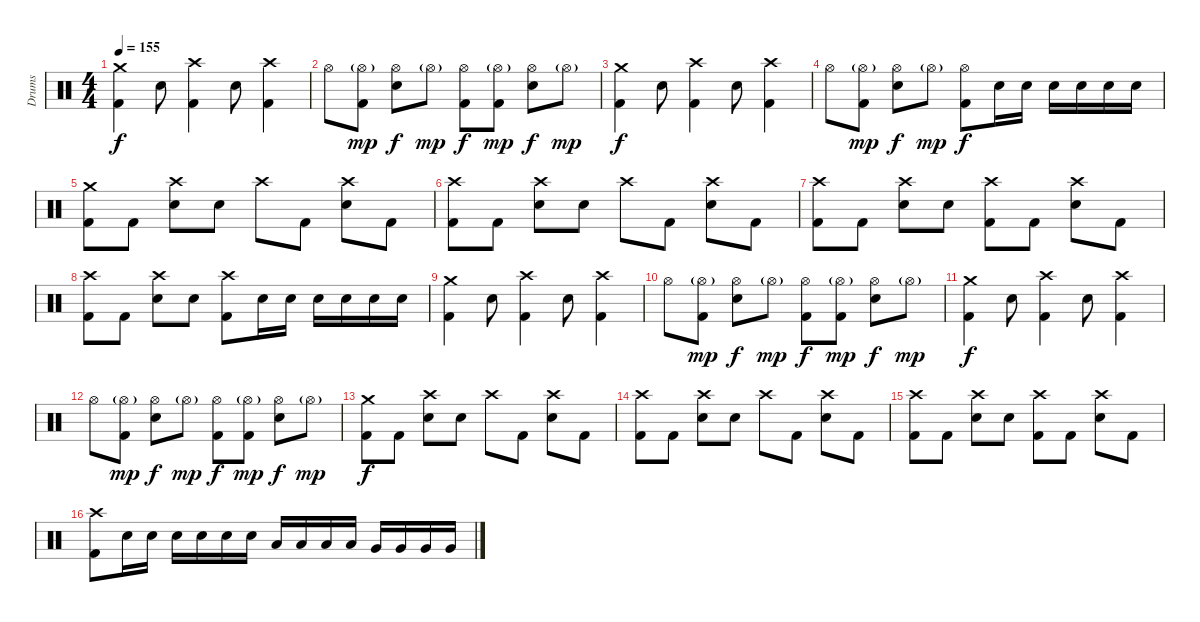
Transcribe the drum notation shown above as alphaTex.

\track ("Drums" "Drums") {instrument percussion}
\staff {score}
\articulation defaults
\ts (4 4)
\tempo 155
\clef neutral
\ks c
("Crash medium (hit)" "Kick (hit) 2").4{dy f} "Electric Snare (hit)".8 ("Crash high (hit)" "Kick (hit) 2").4 "Electric Snare (hit)".8 ("Crash high (hit)" "Kick (hit) 2").4 |
"Hi-Hat (open)".8 ("Hi-Hat (open)"{g} "Kick (hit) 2").8{dy mp} ("Hi-Hat (open)" "Electric Snare (hit)").8{dy f} "Hi-Hat (open)"{g}.8{dy mp} ("Hi-Hat (open)" "Kick (hit) 2").8{dy f} ("Hi-Hat (open)"{g} "Kick (hit) 2").8{dy mp} ("Hi-Hat (open)" "Electric Snare (hit)").8{dy f} "Hi-Hat (open)"{g}.8{dy mp} |
("Crash medium (hit)" "Kick (hit) 2").4{dy f} "Electric Snare (hit)".8 ("Crash high (hit)" "Kick (hit) 2").4 "Electric Snare (hit)".8 ("Crash high (hit)" "Kick (hit) 2").4 |
"Hi-Hat (open)".8 ("Hi-Hat (open)"{g} "Kick (hit) 2").8{dy mp} ("Hi-Hat (open)" "Electric Snare (hit)").8{dy f} "Hi-Hat (open)"{g}.8{dy mp} ("Hi-Hat (open)" "Kick (hit) 2").8{dy f} "Electric Snare (hit)".16 "Electric Snare (hit)".16 "Electric Snare (hit)".16 "Electric Snare (hit)".16 "Electric Snare (hit)".16 "Electric Snare (hit)".16 |
("Crash medium (hit)" "Kick (hit) 2").8 "Kick (hit) 2".8 ("Crash high (hit)" "Electric Snare (hit)").8 "Electric Snare (hit)".8 "Crash high (hit)".8 "Kick (hit) 2".8 ("Crash high (hit)" "Electric Snare (hit)").8 "Kick (hit) 2".8 |
("Crash high (hit)" "Kick (hit) 2").8 "Kick (hit) 2".8 ("Crash high (hit)" "Electric Snare (hit)").8 "Electric Snare (hit)".8 "Crash high (hit)".8 "Kick (hit) 2".8 ("Crash high (hit)" "Electric Snare (hit)").8 "Kick (hit) 2".8 |
("Crash high (hit)" "Kick (hit) 2").8 "Kick (hit) 2".8 ("Crash high (hit)" "Electric Snare (hit)").8 "Electric Snare (hit)".8 ("Crash high (hit)" "Kick (hit) 2").8 "Kick (hit) 2".8 ("Crash high (hit)" "Electric Snare (hit)").8 "Kick (hit) 2".8 |
("Crash high (hit)" "Kick (hit) 2").8 "Kick (hit) 2".8 ("Crash high (hit)" "Electric Snare (hit)").8 "Electric Snare (hit)".8 ("Crash high (hit)" "Kick (hit) 2").8 "Electric Snare (hit)".16 "Electric Snare (hit)".16 "Electric Snare (hit)".16 "Electric Snare (hit)".16 "Electric Snare (hit)".16 "Electric Snare (hit)".16 |
("Crash medium (hit)" "Kick (hit) 2").4 "Electric Snare (hit)".8 ("Crash high (hit)" "Kick (hit) 2").4 "Electric Snare (hit)".8 ("Crash high (hit)" "Kick (hit) 2").4 |
"Hi-Hat (open)".8 ("Hi-Hat (open)"{g} "Kick (hit) 2").8{dy mp} ("Hi-Hat (open)" "Electric Snare (hit)").8{dy f} "Hi-Hat (open)"{g}.8{dy mp} ("Hi-Hat (open)" "Kick (hit) 2").8{dy f} ("Hi-Hat (open)"{g} "Kick (hit) 2").8{dy mp} ("Hi-Hat (open)" "Electric Snare (hit)").8{dy f} "Hi-Hat (open)"{g}.8{dy mp} |
("Crash medium (hit)" "Kick (hit) 2").4{dy f} "Electric Snare (hit)".8 ("Crash high (hit)" "Kick (hit) 2").4 "Electric Snare (hit)".8 ("Crash high (hit)" "Kick (hit) 2").4 |
"Hi-Hat (open)".8 ("Hi-Hat (open)"{g} "Kick (hit) 2").8{dy mp} ("Hi-Hat (open)" "Electric Snare (hit)").8{dy f} "Hi-Hat (open)"{g}.8{dy mp} ("Hi-Hat (open)" "Kick (hit) 2").8{dy f} ("Hi-Hat (open)"{g} "Kick (hit) 2").8{dy mp} ("Hi-Hat (open)" "Electric Snare (hit)").8{dy f} "Hi-Hat (open)"{g}.8{dy mp} |
("Crash medium (hit)" "Kick (hit) 2").8{dy f} "Kick (hit) 2".8 ("Crash high (hit)" "Electric Snare (hit)").8 "Electric Snare (hit)".8 "Crash high (hit)".8 "Kick (hit) 2".8 ("Crash high (hit)" "Electric Snare (hit)").8 "Kick (hit) 2".8 |
("Crash high (hit)" "Kick (hit) 2").8 "Kick (hit) 2".8 ("Crash high (hit)" "Electric Snare (hit)").8 "Electric Snare (hit)".8 "Crash high (hit)".8 "Kick (hit) 2".8 ("Crash high (hit)" "Electric Snare (hit)").8 "Kick (hit) 2".8 |
("Crash high (hit)" "Kick (hit) 2").8 "Kick (hit) 2".8 ("Crash high (hit)" "Electric Snare (hit)").8 "Electric Snare (hit)".8 ("Crash high (hit)" "Kick (hit) 2").8 "Kick (hit) 2".8 ("Crash high (hit)" "Electric Snare (hit)").8 "Kick (hit) 2".8 |
("Crash high (hit)" "Kick (hit) 2").8 "Electric Snare (hit)".16 "Electric Snare (hit)".16 "Electric Snare (hit)".16 "Electric Snare (hit)".16 "Electric Snare (hit)".16 "Electric Snare (hit)".16 "Low Tom (hit)".16 "Low Tom (hit)".16 "Low Tom (hit)".16 "Low Tom (hit)".16 "Very Low Tom (hit)".16 "Very Low Tom (hit)".16 "Very Low Tom (hit)".16 "Very Low Tom (hit)".16
